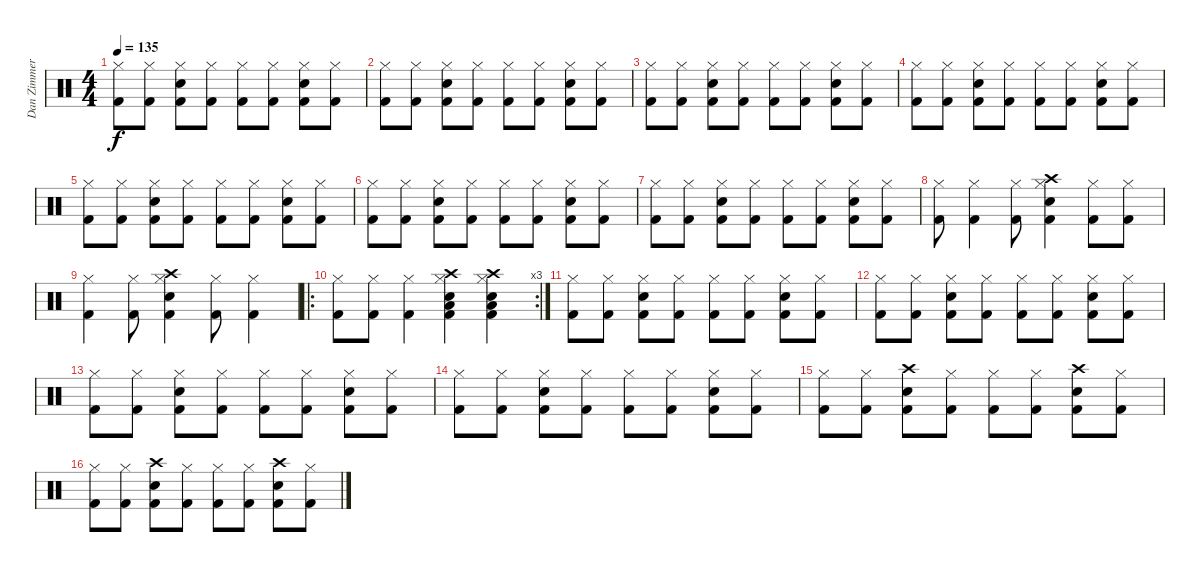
\track ("Dan Zimmerman" "Dan Zimmer") {instrument percussion}
\staff {score}
\articulation defaults
\ts (4 4)
\tempo 135
\clef neutral
\ks c
("Hi-Hat (closed)" "Kick (hit) 2").8{dy f} ("Hi-Hat (closed)" "Kick (hit) 2").8 ("Snare (hit) 2" "Hi-Hat (closed)" "Kick (hit) 2").8 ("Hi-Hat (closed)" "Kick (hit) 2").8 ("Hi-Hat (closed)" "Kick (hit) 2").8 ("Hi-Hat (closed)" "Kick (hit) 2").8 ("Snare (hit) 2" "Hi-Hat (closed)" "Kick (hit) 2").8 ("Hi-Hat (closed)" "Kick (hit) 2").8 |
("Hi-Hat (closed)" "Kick (hit) 2").8 ("Hi-Hat (closed)" "Kick (hit) 2").8 ("Snare (hit) 2" "Hi-Hat (closed)" "Kick (hit) 2").8 ("Hi-Hat (closed)" "Kick (hit) 2").8 ("Hi-Hat (closed)" "Kick (hit) 2").8 ("Hi-Hat (closed)" "Kick (hit) 2").8 ("Snare (hit) 2" "Hi-Hat (closed)" "Kick (hit) 2").8 ("Hi-Hat (closed)" "Kick (hit) 2").8 |
("Hi-Hat (closed)" "Kick (hit) 2").8 ("Hi-Hat (closed)" "Kick (hit) 2").8 ("Snare (hit) 2" "Hi-Hat (closed)" "Kick (hit) 2").8 ("Hi-Hat (closed)" "Kick (hit) 2").8 ("Hi-Hat (closed)" "Kick (hit) 2").8 ("Hi-Hat (closed)" "Kick (hit) 2").8 ("Snare (hit) 2" "Hi-Hat (closed)" "Kick (hit) 2").8 ("Hi-Hat (closed)" "Kick (hit) 2").8 |
("Hi-Hat (closed)" "Kick (hit) 2").8 ("Hi-Hat (closed)" "Kick (hit) 2").8 ("Snare (hit) 2" "Hi-Hat (closed)" "Kick (hit) 2").8 ("Hi-Hat (closed)" "Kick (hit) 2").8 ("Hi-Hat (closed)" "Kick (hit) 2").8 ("Hi-Hat (closed)" "Kick (hit) 2").8 ("Snare (hit) 2" "Hi-Hat (closed)" "Kick (hit) 2").8 ("Hi-Hat (closed)" "Kick (hit) 2").8 |
("Hi-Hat (closed)" "Kick (hit) 2").8 ("Hi-Hat (closed)" "Kick (hit) 2").8 ("Snare (hit) 2" "Hi-Hat (closed)" "Kick (hit) 2").8 ("Hi-Hat (closed)" "Kick (hit) 2").8 ("Hi-Hat (closed)" "Kick (hit) 2").8 ("Hi-Hat (closed)" "Kick (hit) 2").8 ("Snare (hit) 2" "Hi-Hat (closed)" "Kick (hit) 2").8 ("Hi-Hat (closed)" "Kick (hit) 2").8 |
("Hi-Hat (closed)" "Kick (hit) 2").8 ("Hi-Hat (closed)" "Kick (hit) 2").8 ("Snare (hit) 2" "Hi-Hat (closed)" "Kick (hit) 2").8 ("Hi-Hat (closed)" "Kick (hit) 2").8 ("Hi-Hat (closed)" "Kick (hit) 2").8 ("Hi-Hat (closed)" "Kick (hit) 2").8 ("Snare (hit) 2" "Hi-Hat (closed)" "Kick (hit) 2").8 ("Hi-Hat (closed)" "Kick (hit) 2").8 |
("Hi-Hat (closed)" "Kick (hit) 2").8 ("Hi-Hat (closed)" "Kick (hit) 2").8 ("Snare (hit) 2" "Hi-Hat (closed)" "Kick (hit) 2").8 ("Hi-Hat (closed)" "Kick (hit) 2").8 ("Hi-Hat (closed)" "Kick (hit) 2").8 ("Hi-Hat (closed)" "Kick (hit) 2").8 ("Snare (hit) 2" "Hi-Hat (closed)" "Kick (hit) 2").8 ("Hi-Hat (closed)" "Kick (hit) 2").8 |
("Hi-Hat (closed)" "Kick (hit) 2").8 ("Hi-Hat (closed)" "Kick (hit) 2").4 ("Hi-Hat (closed)" "Kick (hit) 2").8 ("Crash high (hit)" "Hi-Hat (closed)" "Kick (hit) 2" "Snare (hit) 2").4 ("Hi-Hat (closed)" "Kick (hit) 2").8 ("Hi-Hat (closed)" "Kick (hit) 2").8 |
("Hi-Hat (closed)" "Kick (hit) 2").4 ("Hi-Hat (closed)" "Kick (hit) 2").8 ("Crash high (hit)" "Hi-Hat (closed)" "Kick (hit) 2" "Snare (hit) 2").4 ("Hi-Hat (closed)" "Kick (hit) 2").8 ("Hi-Hat (closed)" "Kick (hit) 2").4 |
\ro
\rc 3
("Kick (hit) 2" "Hi-Hat (closed)").8 ("Kick (hit) 2" "Hi-Hat (closed)").8 ("Hi-Hat (closed)" "Kick (hit) 2").4 ("Low Tom (hit)" "Hi-Hat (closed)" "Kick (hit) 2" "Snare (hit) 2" "Crash high (hit)").4 ("Low Tom (hit)" "Hi-Hat (closed)" "Kick (hit) 2" "Snare (hit) 2" "Crash high (hit)").4 |
("Hi-Hat (closed)" "Kick (hit) 2").8 ("Hi-Hat (closed)" "Kick (hit) 2").8 ("Hi-Hat (closed)" "Kick (hit) 2" "Snare (hit) 2").8 ("Hi-Hat (closed)" "Kick (hit) 2").8 ("Hi-Hat (closed)" "Kick (hit) 2").8 ("Hi-Hat (closed)" "Kick (hit) 2").8 ("Hi-Hat (closed)" "Kick (hit) 2" "Snare (hit) 2").8 ("Hi-Hat (closed)" "Kick (hit) 2").8 |
("Hi-Hat (closed)" "Kick (hit) 2").8 ("Hi-Hat (closed)" "Kick (hit) 2").8 ("Hi-Hat (closed)" "Kick (hit) 2" "Snare (hit) 2").8 ("Hi-Hat (closed)" "Kick (hit) 2").8 ("Hi-Hat (closed)" "Kick (hit) 2").8 ("Hi-Hat (closed)" "Kick (hit) 2").8 ("Hi-Hat (closed)" "Kick (hit) 2" "Snare (hit) 2").8 ("Hi-Hat (closed)" "Kick (hit) 2").8 |
("Hi-Hat (closed)" "Kick (hit) 2").8 ("Hi-Hat (closed)" "Kick (hit) 2").8 ("Hi-Hat (closed)" "Kick (hit) 2" "Snare (hit) 2").8 ("Hi-Hat (closed)" "Kick (hit) 2").8 ("Hi-Hat (closed)" "Kick (hit) 2").8 ("Hi-Hat (closed)" "Kick (hit) 2").8 ("Hi-Hat (closed)" "Kick (hit) 2" "Snare (hit) 2").8 ("Hi-Hat (closed)" "Kick (hit) 2").8 |
("Hi-Hat (closed)" "Kick (hit) 2").8 ("Hi-Hat (closed)" "Kick (hit) 2").8 ("Hi-Hat (closed)" "Kick (hit) 2" "Snare (hit) 2").8 ("Hi-Hat (closed)" "Kick (hit) 2").8 ("Hi-Hat (closed)" "Kick (hit) 2").8 ("Hi-Hat (closed)" "Kick (hit) 2").8 ("Hi-Hat (closed)" "Kick (hit) 2" "Snare (hit) 2").8 ("Hi-Hat (closed)" "Kick (hit) 2").8 |
("Hi-Hat (closed)" "Kick (hit) 2").8 ("Hi-Hat (closed)" "Kick (hit) 2").8 ("Crash high (hit)" "Kick (hit) 2" "Snare (hit) 2").8 ("Hi-Hat (closed)" "Kick (hit) 2").8 ("Hi-Hat (closed)" "Kick (hit) 2").8 ("Hi-Hat (closed)" "Kick (hit) 2").8 ("Crash high (hit)" "Kick (hit) 2" "Snare (hit) 2").8 ("Hi-Hat (closed)" "Kick (hit) 2").8 |
("Hi-Hat (closed)" "Kick (hit) 2").8 ("Hi-Hat (closed)" "Kick (hit) 2").8 ("Crash high (hit)" "Kick (hit) 2" "Snare (hit) 2").8 ("Hi-Hat (closed)" "Kick (hit) 2").8 ("Hi-Hat (closed)" "Kick (hit) 2").8 ("Hi-Hat (closed)" "Kick (hit) 2").8 ("Crash high (hit)" "Kick (hit) 2" "Snare (hit) 2").8 ("Hi-Hat (closed)" "Kick (hit) 2").8
